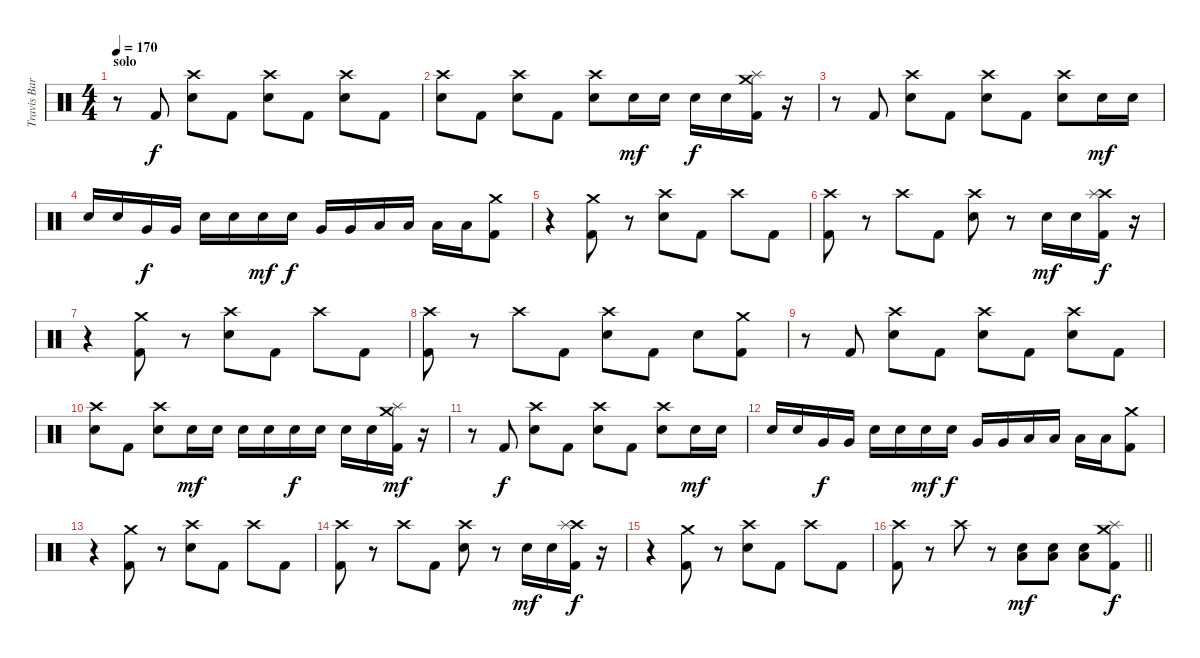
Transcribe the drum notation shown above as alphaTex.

\track ("Travis Barker" "Travis Bar") {instrument percussion}
\staff {score}
\articulation defaults
\ts (4 4)
\section ("" "solo")
\tempo 170
\clef neutral
\ks c
r.8{dy f} "Kick (hit) 2".8 ("Crash high (hit)" "Electric Snare (hit)").8 "Kick (hit) 2".8 ("Crash high (hit)" "Electric Snare (hit)").8 "Kick (hit) 2".8 ("Crash high (hit)" "Electric Snare (hit)").8 "Kick (hit) 2".8 |
("Crash high (hit)" "Electric Snare (hit)").8 "Kick (hit) 2".8 ("Crash high (hit)" "Electric Snare (hit)").8 "Kick (hit) 2".8 ("Crash high (hit)" "Electric Snare (hit)").8 "Electric Snare (hit)".16{dy mf} "Electric Snare (hit)".16 "Electric Snare (hit)".16{dy f} "Electric Snare (hit)".16 ("Crash medium (hit)" "Splash (hit)" "Kick (hit) 2").16 r.16 |
r.8 "Kick (hit) 2".8 ("Crash high (hit)" "Electric Snare (hit)").8 "Kick (hit) 2".8 ("Crash high (hit)" "Electric Snare (hit)").8 "Kick (hit) 2".8 ("Crash high (hit)" "Electric Snare (hit)").8 "Electric Snare (hit)".16{dy mf} "Electric Snare (hit)".16 |
"Electric Snare (hit)".16 "Electric Snare (hit)".16 "Very Low Tom (hit)".16{dy f} "Very Low Tom (hit)".16 "Electric Snare (hit)".16 "Electric Snare (hit)".16 "Electric Snare (hit)".16{dy mf} "Electric Snare (hit)".16{dy f} "Very Low Tom (hit)".16 "Very Low Tom (hit)".16 "Low Floor Tom (hit)".16 "Low Floor Tom (hit)".16 "Low Floor Tom (hit)".16 "Low Floor Tom (hit)".16 ("Crash medium (hit)" "Kick (hit) 2").8 |
r.4 ("Crash medium (hit)" "Kick (hit) 2").8 r.8 ("Crash high (hit)" "Electric Snare (hit)").8 "Kick (hit) 2".8 "Crash high (hit)".8 "Kick (hit) 2".8 |
("Crash high (hit)" "Kick (hit) 2").8 r.8 "Crash high (hit)".8 "Kick (hit) 2".8 ("Crash high (hit)" "Electric Snare (hit)").8 r.8 "Electric Snare (hit)".16{dy mf} "Electric Snare (hit)".16 ("Crash high (hit)" "Kick (hit) 2" "Splash (hit)").16{dy f} r.16 |
r.4 ("Crash medium (hit)" "Kick (hit) 2").8 r.8 ("Crash high (hit)" "Electric Snare (hit)").8 "Kick (hit) 2".8 "Crash high (hit)".8 "Kick (hit) 2".8 |
("Crash high (hit)" "Kick (hit) 2").8 r.8 "Crash high (hit)".8 "Kick (hit) 2".8 ("Crash high (hit)" "Electric Snare (hit)").8 "Kick (hit) 2".8 "Electric Snare (hit)".8 ("Crash medium (hit)" "Kick (hit) 2").8 |
r.8 "Kick (hit) 2".8 ("Crash high (hit)" "Electric Snare (hit)").8 "Kick (hit) 2".8 ("Crash high (hit)" "Electric Snare (hit)").8 "Kick (hit) 2".8 ("Crash high (hit)" "Electric Snare (hit)").8 "Kick (hit) 2".8 |
("Crash high (hit)" "Electric Snare (hit)").8 "Kick (hit) 2".8 ("Crash high (hit)" "Electric Snare (hit)").8 "Electric Snare (hit)".16{dy mf} "Electric Snare (hit)".16 "Electric Snare (hit)".16 "Electric Snare (hit)".16 "Electric Snare (hit)".16{dy f} "Electric Snare (hit)".16 "Electric Snare (hit)".16 "Electric Snare (hit)".16 ("Crash medium (hit)" "Splash (hit)" "Kick (hit) 2").16{dy mf} r.16 |
r.8 "Kick (hit) 2".8{dy f} ("Crash high (hit)" "Electric Snare (hit)").8 "Kick (hit) 2".8 ("Crash high (hit)" "Electric Snare (hit)").8 "Kick (hit) 2".8 ("Crash high (hit)" "Electric Snare (hit)").8 "Electric Snare (hit)".16{dy mf} "Electric Snare (hit)".16 |
"Electric Snare (hit)".16 "Electric Snare (hit)".16 "Very Low Tom (hit)".16{dy f} "Very Low Tom (hit)".16 "Electric Snare (hit)".16 "Electric Snare (hit)".16 "Electric Snare (hit)".16{dy mf} "Electric Snare (hit)".16{dy f} "Very Low Tom (hit)".16 "Very Low Tom (hit)".16 "Low Floor Tom (hit)".16 "Low Floor Tom (hit)".16 "Low Floor Tom (hit)".16 "Low Floor Tom (hit)".16 ("Crash medium (hit)" "Kick (hit) 2").8 |
r.4 ("Crash medium (hit)" "Kick (hit) 2").8 r.8 ("Crash high (hit)" "Electric Snare (hit)").8 "Kick (hit) 2".8 "Crash high (hit)".8 "Kick (hit) 2".8 |
("Crash high (hit)" "Kick (hit) 2").8 r.8 "Crash high (hit)".8 "Kick (hit) 2".8 ("Crash high (hit)" "Electric Snare (hit)").8 r.8 "Electric Snare (hit)".16{dy mf} "Electric Snare (hit)".16 ("Crash high (hit)" "Kick (hit) 2" "Splash (hit)").16{dy f} r.16 |
r.4 ("Crash medium (hit)" "Kick (hit) 2").8 r.8 ("Crash high (hit)" "Electric Snare (hit)").8 "Kick (hit) 2".8 "Crash high (hit)".8 "Kick (hit) 2".8 |
\barLineRight lightlight
("Crash high (hit)" "Kick (hit) 2").8 r.8 "Crash high (hit)".8 r.8 ("Electric Snare (hit)" "Low Floor Tom (hit)").8{dy mf} ("Electric Snare (hit)" "Low Floor Tom (hit)").8 ("Electric Snare (hit)" "Low Floor Tom (hit)").8 ("Crash medium (hit)" "Kick (hit) 2" "Splash (hit)").8{dy f}
